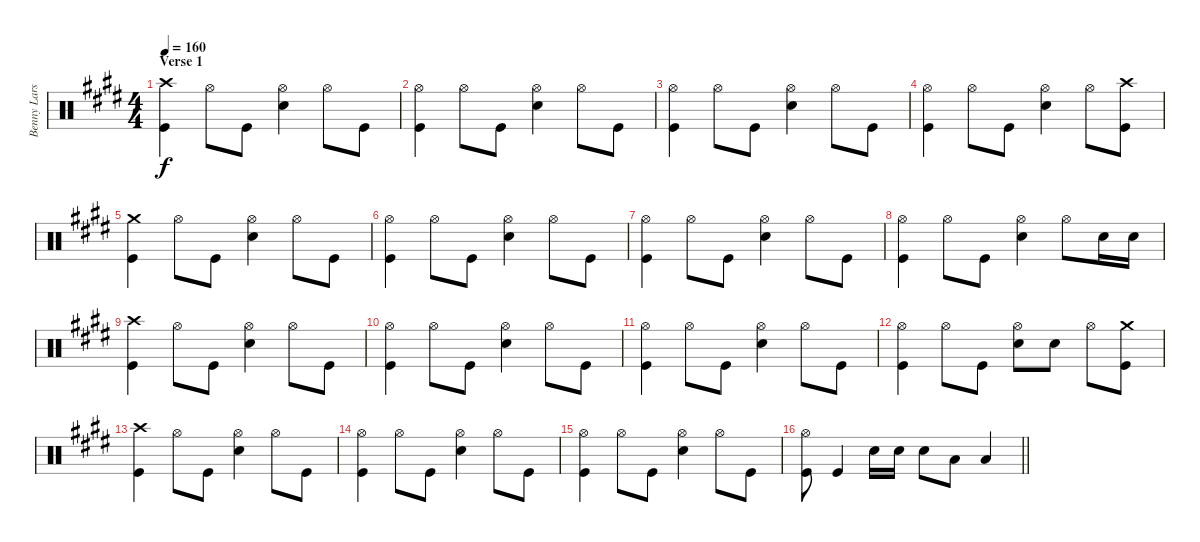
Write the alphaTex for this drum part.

\track ("Benny Larsson" "Benny Lars") {instrument percussion}
\staff {score}
\articulation defaults
\ts (4 4)
\section ("" "Verse 1")
\tempo 160
\clef neutral
\ks e
("Crash high (hit)" "Kick (hit)").4{dy f} "Hi-Hat (open)".8 "Kick (hit)".8 ("Hi-Hat (open)" "Snare (hit) 2").4 "Hi-Hat (open)".8 "Kick (hit)".8 |
("Hi-Hat (open)" "Kick (hit)").4 "Hi-Hat (open)".8 "Kick (hit)".8 ("Hi-Hat (open)" "Snare (hit) 2").4 "Hi-Hat (open)".8 "Kick (hit)".8 |
("Hi-Hat (open)" "Kick (hit)").4 "Hi-Hat (open)".8 "Kick (hit)".8 ("Hi-Hat (open)" "Snare (hit) 2").4 "Hi-Hat (open)".8 "Kick (hit)".8 |
("Hi-Hat (open)" "Kick (hit)").4 "Hi-Hat (open)".8 "Kick (hit)".8 ("Hi-Hat (open)" "Snare (hit) 2").4 "Hi-Hat (open)".8 ("Crash high (hit)" "Kick (hit)").8 |
("Crash medium (hit)" "Kick (hit)").4 "Hi-Hat (open)".8 "Kick (hit)".8 ("Hi-Hat (open)" "Snare (hit) 2").4 "Hi-Hat (open)".8 "Kick (hit)".8 |
("Hi-Hat (open)" "Kick (hit)").4 "Hi-Hat (open)".8 "Kick (hit)".8 ("Hi-Hat (open)" "Snare (hit) 2").4 "Hi-Hat (open)".8 "Kick (hit)".8 |
("Hi-Hat (open)" "Kick (hit)").4 "Hi-Hat (open)".8 "Kick (hit)".8 ("Hi-Hat (open)" "Snare (hit) 2").4 "Hi-Hat (open)".8 "Kick (hit)".8 |
("Hi-Hat (open)" "Kick (hit)").4 "Hi-Hat (open)".8 "Kick (hit)".8 ("Hi-Hat (open)" "Snare (hit) 2").4 "Hi-Hat (open)".8 "Snare (hit) 2".16 "Snare (hit) 2".16 |
("Crash high (hit)" "Kick (hit)").4 "Hi-Hat (open)".8 "Kick (hit)".8 ("Hi-Hat (open)" "Snare (hit) 2").4 "Hi-Hat (open)".8 "Kick (hit)".8 |
("Hi-Hat (open)" "Kick (hit)").4 "Hi-Hat (open)".8 "Kick (hit)".8 ("Hi-Hat (open)" "Snare (hit) 2").4 "Hi-Hat (open)".8 "Kick (hit)".8 |
("Hi-Hat (open)" "Kick (hit)").4 "Hi-Hat (open)".8 "Kick (hit)".8 ("Hi-Hat (open)" "Snare (hit) 2").4 "Hi-Hat (open)".8 "Kick (hit)".8 |
("Hi-Hat (open)" "Kick (hit)").4 "Hi-Hat (open)".8 "Kick (hit)".8 ("Hi-Hat (open)" "Snare (hit) 2").8 "Snare (hit) 2".8 "Hi-Hat (open)".8 ("Crash medium (hit)" "Kick (hit)").8 |
("Crash high (hit)" "Kick (hit)").4 "Hi-Hat (open)".8 "Kick (hit)".8 ("Hi-Hat (open)" "Snare (hit) 2").4 "Hi-Hat (open)".8 "Kick (hit)".8 |
("Hi-Hat (open)" "Kick (hit)").4 "Hi-Hat (open)".8 "Kick (hit)".8 ("Hi-Hat (open)" "Snare (hit) 2").4 "Hi-Hat (open)".8 "Kick (hit)".8 |
("Hi-Hat (open)" "Kick (hit)").4 "Hi-Hat (open)".8 "Kick (hit)".8 ("Hi-Hat (open)" "Snare (hit) 2").4 "Hi-Hat (open)".8 "Kick (hit)".8 |
\barLineRight lightlight
("Hi-Hat (open)" "Kick (hit)").8 "Kick (hit)".4 "Snare (hit) 2".16 "Snare (hit) 2".16 "Snare (hit) 2".8 "Low Tom (hit)".8 "Low Tom (hit)".4
